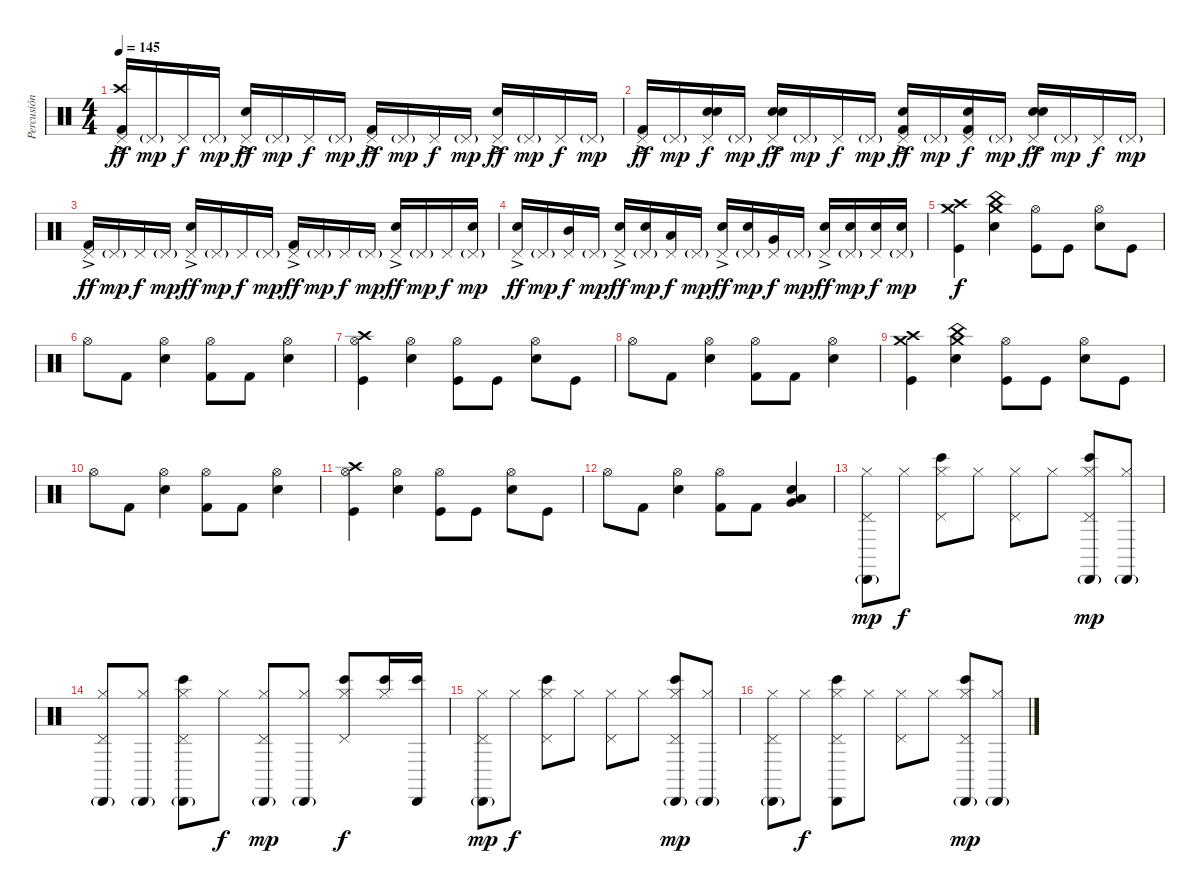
\track ("Percusión" "Percusión") {instrument percussion}
\staff {score}
\articulation defaults
\ts (4 4)
\tempo 145
\clef neutral
\ks c
("Pedal Hi-Hat (hit)"{ac} "Crash high (hit)" "Kick (hit) 2").16{dy ff} "Pedal Hi-Hat (hit)"{g}.16{dy mp} "Pedal Hi-Hat (hit)".16{dy f} "Pedal Hi-Hat (hit)"{g}.16{dy mp} ("Pedal Hi-Hat (hit)"{ac} "Electric Snare (hit)").16{dy ff} "Pedal Hi-Hat (hit)"{g}.16{dy mp} "Pedal Hi-Hat (hit)".16{dy f} "Pedal Hi-Hat (hit)"{g}.16{dy mp} ("Pedal Hi-Hat (hit)"{ac} "Kick (hit) 2").16{dy ff} "Pedal Hi-Hat (hit)"{g}.16{dy mp} "Pedal Hi-Hat (hit)".16{dy f} "Pedal Hi-Hat (hit)"{g}.16{dy mp} ("Pedal Hi-Hat (hit)"{ac} "Electric Snare (hit)").16{dy ff} "Pedal Hi-Hat (hit)"{g}.16{dy mp} "Pedal Hi-Hat (hit)".16{dy f} "Pedal Hi-Hat (hit)"{g}.16{dy mp} |
("Pedal Hi-Hat (hit)"{ac} "Kick (hit) 2").16{dy ff} "Pedal Hi-Hat (hit)"{g}.16{dy mp} ("Pedal Hi-Hat (hit)" "Electric Snare (hit)" "Hand Clap (hit)").16{dy f} "Pedal Hi-Hat (hit)"{g}.16{dy mp} ("Pedal Hi-Hat (hit)"{ac} "Electric Snare (hit)" "Hand Clap (hit)").16{dy ff} "Pedal Hi-Hat (hit)"{g}.16{dy mp} "Pedal Hi-Hat (hit)".16{dy f} "Pedal Hi-Hat (hit)"{g}.16{dy mp} ("Pedal Hi-Hat (hit)"{ac} "Kick (hit) 2" "Hand Clap (hit)").16{dy ff} "Pedal Hi-Hat (hit)"{g}.16{dy mp} ("Pedal Hi-Hat (hit)" "Kick (hit) 2" "Hand Clap (hit)").16{dy f} "Pedal Hi-Hat (hit)"{g}.16{dy mp} ("Pedal Hi-Hat (hit)"{ac} "Electric Snare (hit)" "Hand Clap (hit)").16{dy ff} "Pedal Hi-Hat (hit)"{g}.16{dy mp} "Pedal Hi-Hat (hit)".16{dy f} "Pedal Hi-Hat (hit)"{g}.16{dy mp} |
("Pedal Hi-Hat (hit)"{ac} "Kick (hit) 2").16{dy ff} "Pedal Hi-Hat (hit)"{g}.16{dy mp} "Pedal Hi-Hat (hit)".16{dy f} "Pedal Hi-Hat (hit)"{g}.16{dy mp} ("Pedal Hi-Hat (hit)"{ac} "Electric Snare (hit)").16{dy ff} "Pedal Hi-Hat (hit)"{g}.16{dy mp} "Pedal Hi-Hat (hit)".16{dy f} "Pedal Hi-Hat (hit)"{g}.16{dy mp} ("Pedal Hi-Hat (hit)"{ac} "Kick (hit) 2").16{dy ff} "Pedal Hi-Hat (hit)"{g}.16{dy mp} "Pedal Hi-Hat (hit)".16{dy f} "Pedal Hi-Hat (hit)"{g}.16{dy mp} ("Pedal Hi-Hat (hit)"{ac} "Electric Snare (hit)").16{dy ff} "Pedal Hi-Hat (hit)"{g}.16{dy mp} "Pedal Hi-Hat (hit)".16{dy f} ("Pedal Hi-Hat (hit)"{g} "Electric Snare (hit)").16{dy mp} |
("Pedal Hi-Hat (hit)"{ac} "Electric Snare (hit)").16{dy ff} "Pedal Hi-Hat (hit)"{g}.16{dy mp} ("Pedal Hi-Hat (hit)" "Mid Tom (hit)").16{dy f} "Pedal Hi-Hat (hit)"{g}.16{dy mp} ("Pedal Hi-Hat (hit)"{ac} "Electric Snare (hit)").16{dy ff} ("Pedal Hi-Hat (hit)"{g} "Electric Snare (hit)").16{dy mp} ("Pedal Hi-Hat (hit)" "Low Tom (hit)").16{dy f} "Pedal Hi-Hat (hit)"{g}.16{dy mp} ("Pedal Hi-Hat (hit)"{ac} "Electric Snare (hit)").16{dy ff} ("Pedal Hi-Hat (hit)"{g} "Electric Snare (hit)").16{dy mp} ("Pedal Hi-Hat (hit)" "Very Low Tom (hit)").16{dy f} "Pedal Hi-Hat (hit)"{g}.16{dy mp} ("Pedal Hi-Hat (hit)"{ac} "Electric Snare (hit)").16{dy ff} ("Pedal Hi-Hat (hit)"{g} "Electric Snare (hit)").16{dy mp} ("Pedal Hi-Hat (hit)" "Electric Snare (hit)").16{dy f} ("Pedal Hi-Hat (hit)"{g} "Electric Snare (hit)").16{dy mp} |
("Kick (hit)" "Crash high (hit)" "Crash medium (hit)").4{dy f} ("Electric Snare (hit)" "China (hit)" "Crash medium (hit)").4 ("Hi-Hat (open)" "Kick (hit)").8 "Kick (hit)".8 ("Hi-Hat (open)" "Electric Snare (hit)").8 "Kick (hit)".8 |
"Hi-Hat (open)".8 "Kick (hit) 2".8 ("Hi-Hat (open)" "Electric Snare (hit)").4 ("Hi-Hat (open)" "Kick (hit) 2").8 "Kick (hit) 2".8 ("Hi-Hat (open)" "Electric Snare (hit)").4 |
("Hi-Hat (open)" "Crash high (hit)" "Kick (hit)").4 ("Hi-Hat (open)" "Electric Snare (hit)").4 ("Hi-Hat (open)" "Kick (hit)").8 "Kick (hit)".8 ("Hi-Hat (open)" "Electric Snare (hit)").8 "Kick (hit)".8 |
"Hi-Hat (open)".8 "Kick (hit) 2".8 ("Hi-Hat (open)" "Electric Snare (hit)").4 ("Hi-Hat (open)" "Kick (hit) 2").8 "Kick (hit) 2".8 ("Hi-Hat (open)" "Electric Snare (hit)").4 |
("Kick (hit)" "Crash high (hit)" "Crash medium (hit)").4 ("Electric Snare (hit)" "China (hit)" "Crash medium (hit)").4 ("Hi-Hat (open)" "Kick (hit)").8 "Kick (hit)".8 ("Hi-Hat (open)" "Electric Snare (hit)").8 "Kick (hit)".8 |
"Hi-Hat (open)".8 "Kick (hit) 2".8 ("Hi-Hat (open)" "Electric Snare (hit)").4 ("Hi-Hat (open)" "Kick (hit) 2").8 "Kick (hit) 2".8 ("Hi-Hat (open)" "Electric Snare (hit)").4 |
("Hi-Hat (open)" "Crash high (hit)" "Kick (hit)").4 ("Hi-Hat (open)" "Electric Snare (hit)").4 ("Hi-Hat (open)" "Kick (hit)").8 "Kick (hit)".8 ("Hi-Hat (open)" "Electric Snare (hit)").8 "Kick (hit)".8 |
"Hi-Hat (open)".8 "Kick (hit) 2".8 ("Hi-Hat (open)" "Electric Snare (hit)").4 ("Hi-Hat (open)" "Kick (hit) 2").8 "Kick (hit) 2".8 ("Very Low Tom (hit)" "Low Tom (hit)" "Electric Snare (hit)").4 |
("Cabasa (hit)"{g} "Hi-Hat (closed)" "Pedal Hi-Hat (hit)").8{dy mp} "Hi-Hat (closed)".8{dy f} ("Hi-Hat (closed)" "Bongo High (hit)" "Pedal Hi-Hat (hit)").8 "Hi-Hat (closed)".8 ("Hi-Hat (closed)" "Pedal Hi-Hat (hit)").8 "Hi-Hat (closed)".8 ("Cabasa (hit)"{g} "Hi-Hat (closed)" "Bongo High (hit)" "Pedal Hi-Hat (hit)").8{dy mp} ("Cabasa (hit)"{g} "Hi-Hat (closed)").8 |
("Cabasa (hit)"{g} "Hi-Hat (closed)" "Pedal Hi-Hat (hit)").8 ("Cabasa (hit)"{g} "Hi-Hat (closed)").8 ("Cabasa (hit)"{g} "Hi-Hat (closed)" "Bongo High (hit)" "Pedal Hi-Hat (hit)").8 "Hi-Hat (closed)".8{dy f} ("Cabasa (hit)"{g} "Hi-Hat (closed)" "Pedal Hi-Hat (hit)").8{dy mp} ("Cabasa (hit)"{g} "Hi-Hat (closed)").8 ("Hi-Hat (closed)" "Bongo High (hit)" "Pedal Hi-Hat (hit)").8{dy f} ("Hi-Hat (closed)" "Bongo High (hit)").16 ("Cabasa (hit)" "Bongo High (hit)").16 |
("Cabasa (hit)"{g} "Hi-Hat (closed)" "Pedal Hi-Hat (hit)").8{dy mp} "Hi-Hat (closed)".8{dy f} ("Hi-Hat (closed)" "Bongo High (hit)" "Pedal Hi-Hat (hit)").8 "Hi-Hat (closed)".8 ("Hi-Hat (closed)" "Pedal Hi-Hat (hit)").8 "Hi-Hat (closed)".8 ("Cabasa (hit)"{g} "Hi-Hat (closed)" "Bongo High (hit)" "Pedal Hi-Hat (hit)").8{dy mp} ("Cabasa (hit)"{g} "Hi-Hat (closed)").8 |
("Cabasa (hit)"{g} "Hi-Hat (closed)" "Pedal Hi-Hat (hit)").8 "Hi-Hat (closed)".8{dy f} ("Cabasa (hit)" "Hi-Hat (closed)" "Bongo High (hit)" "Pedal Hi-Hat (hit)").8 "Hi-Hat (closed)".8 ("Hi-Hat (closed)" "Pedal Hi-Hat (hit)").8 "Hi-Hat (closed)".8 ("Cabasa (hit)"{g} "Hi-Hat (closed)" "Bongo High (hit)" "Pedal Hi-Hat (hit)").8{dy mp} ("Cabasa (hit)"{g} "Hi-Hat (closed)").8
